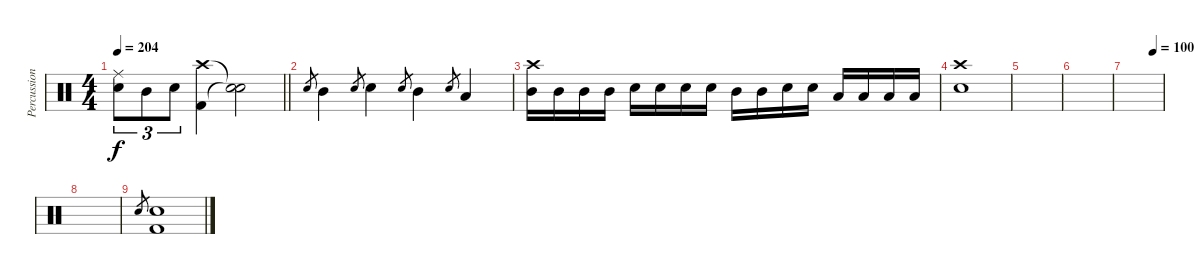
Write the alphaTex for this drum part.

\track ("Percussion" "Percussion") {instrument percussion}
\staff {score}
\articulation defaults
\ts (4 4)
\tempo 204
\clef neutral
\barLineRight lightlight
\ks c
("Ride (middle)" "Snare (hit) 2").8{tu (3 2) dy f} "Mid Tom (hit)".8{tu (3 2)} "Snare (hit) 2".8{tu (3 2)} ("Crash high (hit)" "Kick (hit) 2").4 ("Snare (hit)"{t} "Snare (hit)"{t}).2 |
"Snare (hit) 2".8{gr} "Mid Tom (hit)".4 "Snare (hit) 2".8{gr} "Snare (hit) 2".4 "Snare (hit) 2".8{gr} "Mid Tom (hit)".4 "Snare (hit) 2".8{gr} "Low Floor Tom (hit)".4 |
("Mid Tom (hit)" "Crash high (hit)").16 "Mid Tom (hit)".16 "Mid Tom (hit)".16 "Mid Tom (hit)".16 "Snare (hit) 2".16 "Snare (hit) 2".16 "Snare (hit) 2".16 "Snare (hit) 2".16 "Mid Tom (hit)".16 "Mid Tom (hit)".16 "Snare (hit) 2".16 "Snare (hit) 2".16 "Low Floor Tom (hit)".16 "Low Floor Tom (hit)".16 "Low Floor Tom (hit)".16 "Low Floor Tom (hit)".16 |
("Crash high (hit)" "Snare (hit) 2").1 |
|
|
\tempo (100 0.75)
|
|
"Snare (hit) 2".8{gr} ("Kick (hit) 2" "Snare (hit) 2").1
